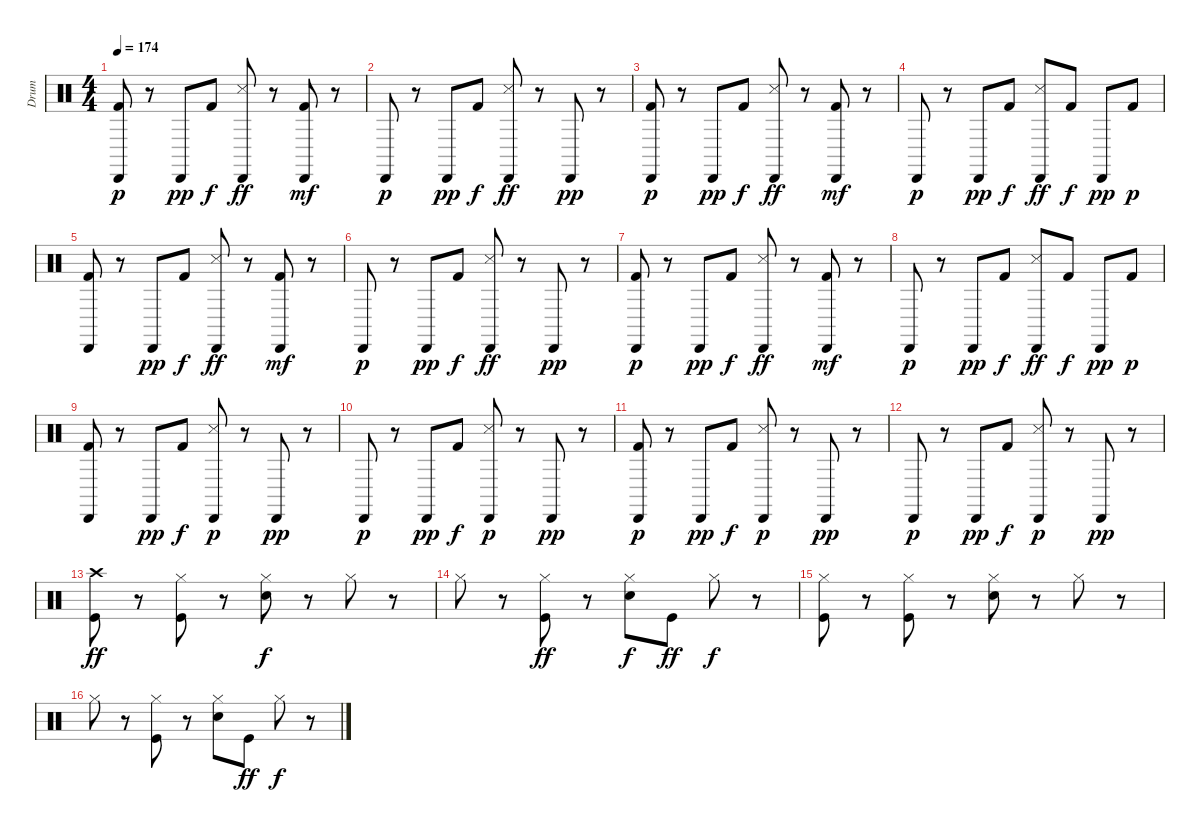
\track ("Drum" "Drum") {instrument percussion}
\staff {score}
\articulation defaults
\ts (4 4)
\tempo 174
\clef neutral
\ks c
("Cabasa (hit)" "Kick (hit) 2").8{dy p} r.8 "Cabasa (hit)".8{dy pp} "Kick (hit) 2".8{dy f} ("Cabasa (hit)" "Snare (side stick) 3").8{dy ff} r.8 ("Cabasa (hit)" "Kick (hit) 2").8{dy mf} r.8 |
"Cabasa (hit)".8{dy p} r.8 "Cabasa (hit)".8{dy pp} "Kick (hit) 2".8{dy f} ("Cabasa (hit)" "Snare (side stick) 3").8{dy ff} r.8 "Cabasa (hit)".8{dy pp} r.8 |
("Cabasa (hit)" "Kick (hit) 2").8{dy p} r.8 "Cabasa (hit)".8{dy pp} "Kick (hit) 2".8{dy f} ("Cabasa (hit)" "Snare (side stick) 3").8{dy ff} r.8 ("Cabasa (hit)" "Kick (hit) 2").8{dy mf} r.8 |
"Cabasa (hit)".8{dy p} r.8 "Cabasa (hit)".8{dy pp} "Kick (hit) 2".8{dy f} ("Cabasa (hit)" "Snare (side stick) 3").8{dy ff} "Kick (hit) 2".8{dy f} "Cabasa (hit)".8{dy pp} "Kick (hit) 2".8{dy p} |
("Cabasa (hit)" "Kick (hit) 2").8 r.8 "Cabasa (hit)".8{dy pp} "Kick (hit) 2".8{dy f} ("Cabasa (hit)" "Snare (side stick) 3").8{dy ff} r.8 ("Cabasa (hit)" "Kick (hit) 2").8{dy mf} r.8 |
"Cabasa (hit)".8{dy p} r.8 "Cabasa (hit)".8{dy pp} "Kick (hit) 2".8{dy f} ("Cabasa (hit)" "Snare (side stick) 3").8{dy ff} r.8 "Cabasa (hit)".8{dy pp} r.8 |
("Cabasa (hit)" "Kick (hit) 2").8{dy p} r.8 "Cabasa (hit)".8{dy pp} "Kick (hit) 2".8{dy f} ("Cabasa (hit)" "Snare (side stick) 3").8{dy ff} r.8 ("Cabasa (hit)" "Kick (hit) 2").8{dy mf} r.8 |
"Cabasa (hit)".8{dy p} r.8 "Cabasa (hit)".8{dy pp} "Kick (hit) 2".8{dy f} ("Cabasa (hit)" "Snare (side stick) 3").8{dy ff} "Kick (hit) 2".8{dy f} "Cabasa (hit)".8{dy pp} "Kick (hit) 2".8{dy p} |
("Cabasa (hit)" "Kick (hit) 2").8 r.8 "Cabasa (hit)".8{dy pp} "Kick (hit) 2".8{dy f} ("Cabasa (hit)" "Snare (side stick) 3").8{dy p} r.8 "Cabasa (hit)".8{dy pp} r.8 |
"Cabasa (hit)".8{dy p} r.8 "Cabasa (hit)".8{dy pp} "Kick (hit) 2".8{dy f} ("Cabasa (hit)" "Snare (side stick) 3").8{dy p} r.8 "Cabasa (hit)".8{dy pp} r.8 |
("Cabasa (hit)" "Kick (hit) 2").8{dy p} r.8 "Cabasa (hit)".8{dy pp} "Kick (hit) 2".8{dy f} ("Cabasa (hit)" "Snare (side stick) 3").8{dy p} r.8 "Cabasa (hit)".8{dy pp} r.8 |
"Cabasa (hit)".8{dy p} r.8 "Cabasa (hit)".8{dy pp} "Kick (hit) 2".8{dy f} ("Cabasa (hit)" "Snare (side stick) 3").8{dy p} r.8 "Cabasa (hit)".8{dy pp} r.8 |
("Crash high (hit)" "Kick (hit)").8{dy ff} r.8 ("Hi-Hat (closed)" "Kick (hit)").8 r.8 ("Hi-Hat (closed)" "Snare (hit) 2").8{dy f} r.8 "Hi-Hat (closed)".8 r.8 |
"Hi-Hat (closed)".8 r.8 ("Hi-Hat (closed)" "Kick (hit)").8{dy ff} r.8 ("Hi-Hat (closed)" "Snare (hit) 2").8{dy f} "Kick (hit)".8{dy ff} "Hi-Hat (closed)".8{dy f} r.8 |
("Hi-Hat (closed)" "Kick (hit)").8 r.8 ("Hi-Hat (closed)" "Kick (hit)").8 r.8 ("Hi-Hat (closed)" "Snare (hit) 2").8 r.8 "Hi-Hat (closed)".8 r.8 |
"Hi-Hat (closed)".8 r.8 ("Hi-Hat (closed)" "Kick (hit)").8 r.8 ("Hi-Hat (closed)" "Snare (hit) 2").8 "Kick (hit)".8{dy ff} "Hi-Hat (closed)".8{dy f} r.8
